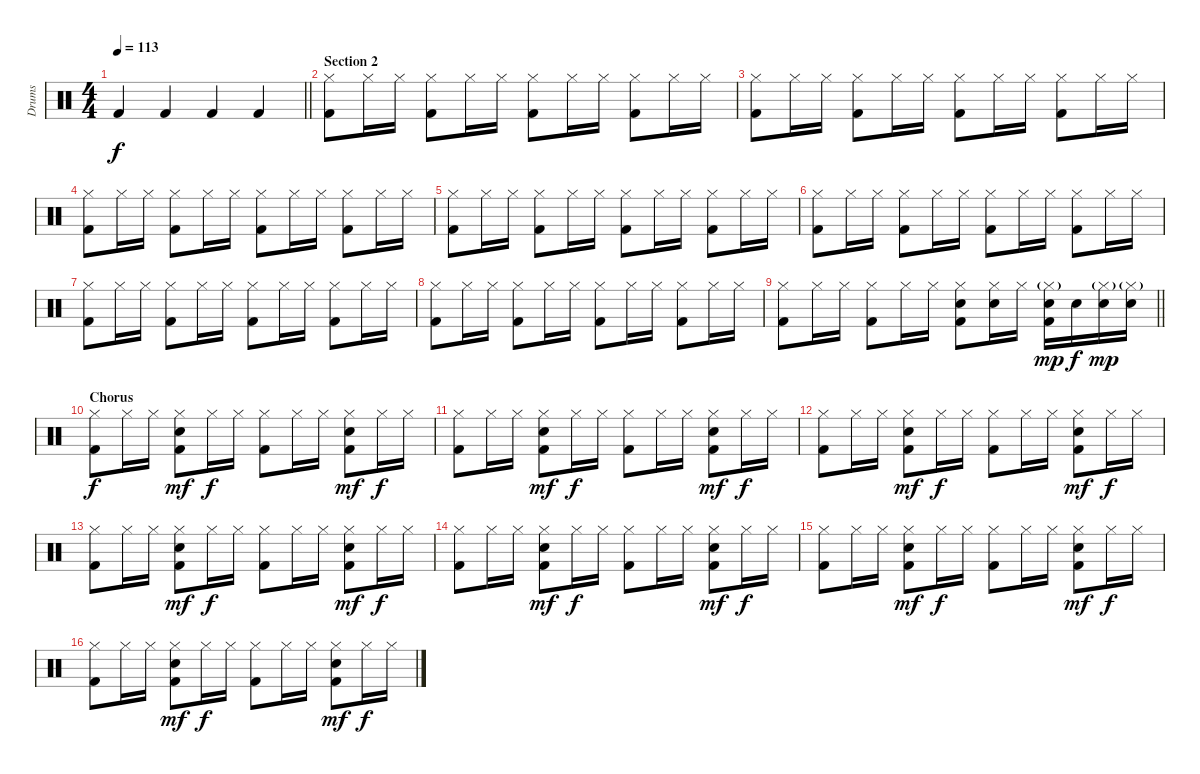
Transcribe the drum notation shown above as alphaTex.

\track ("Drums" "Drums") {instrument percussion}
\staff {score}
\articulation defaults
\ts (4 4)
\tempo 113
\clef neutral
\barLineRight lightlight
\ks c "Kick (hit) 2".4{dy f} "Kick (hit) 2".4 "Kick (hit) 2".4 "Kick (hit) 2".4
|
\section ("" "Section 2")
("Hi-Hat (closed)" "Kick (hit) 2").8 "Hi-Hat (closed)".16 "Hi-Hat (closed)".16 ("Hi-Hat (closed)" "Kick (hit) 2").8 "Hi-Hat (closed)".16 "Hi-Hat (closed)".16 ("Hi-Hat (closed)" "Kick (hit) 2").8 "Hi-Hat (closed)".16 "Hi-Hat (closed)".16 ("Hi-Hat (closed)" "Kick (hit) 2").8 "Hi-Hat (closed)".16 "Hi-Hat (closed)".16 |
("Hi-Hat (closed)" "Kick (hit) 2").8 "Hi-Hat (closed)".16 "Hi-Hat (closed)".16 ("Hi-Hat (closed)" "Kick (hit) 2").8 "Hi-Hat (closed)".16 "Hi-Hat (closed)".16 ("Hi-Hat (closed)" "Kick (hit) 2").8 "Hi-Hat (closed)".16 "Hi-Hat (closed)".16 ("Hi-Hat (closed)" "Kick (hit) 2").8 "Hi-Hat (closed)".16 "Hi-Hat (closed)".16 |
("Hi-Hat (closed)" "Kick (hit) 2").8 "Hi-Hat (closed)".16 "Hi-Hat (closed)".16 ("Hi-Hat (closed)" "Kick (hit) 2").8 "Hi-Hat (closed)".16 "Hi-Hat (closed)".16 ("Hi-Hat (closed)" "Kick (hit) 2").8 "Hi-Hat (closed)".16 "Hi-Hat (closed)".16 ("Hi-Hat (closed)" "Kick (hit) 2").8 "Hi-Hat (closed)".16 "Hi-Hat (closed)".16 |
("Hi-Hat (closed)" "Kick (hit) 2").8 "Hi-Hat (closed)".16 "Hi-Hat (closed)".16 ("Hi-Hat (closed)" "Kick (hit) 2").8 "Hi-Hat (closed)".16 "Hi-Hat (closed)".16 ("Hi-Hat (closed)" "Kick (hit) 2").8 "Hi-Hat (closed)".16 "Hi-Hat (closed)".16 ("Hi-Hat (closed)" "Kick (hit) 2").8 "Hi-Hat (closed)".16 "Hi-Hat (closed)".16 |
("Hi-Hat (closed)" "Kick (hit) 2").8 "Hi-Hat (closed)".16 "Hi-Hat (closed)".16 ("Hi-Hat (closed)" "Kick (hit) 2").8 "Hi-Hat (closed)".16 "Hi-Hat (closed)".16 ("Hi-Hat (closed)" "Kick (hit) 2").8 "Hi-Hat (closed)".16 "Hi-Hat (closed)".16 ("Hi-Hat (closed)" "Kick (hit) 2").8 "Hi-Hat (closed)".16 "Hi-Hat (closed)".16 |
("Hi-Hat (closed)" "Kick (hit) 2").8 "Hi-Hat (closed)".16 "Hi-Hat (closed)".16 ("Hi-Hat (closed)" "Kick (hit) 2").8 "Hi-Hat (closed)".16 "Hi-Hat (closed)".16 ("Hi-Hat (closed)" "Kick (hit) 2").8 "Hi-Hat (closed)".16 "Hi-Hat (closed)".16 ("Hi-Hat (closed)" "Kick (hit) 2").8 "Hi-Hat (closed)".16 "Hi-Hat (closed)".16 |
("Hi-Hat (closed)" "Kick (hit) 2").8 "Hi-Hat (closed)".16 "Hi-Hat (closed)".16 ("Hi-Hat (closed)" "Kick (hit) 2").8 "Hi-Hat (closed)".16 "Hi-Hat (closed)".16 ("Hi-Hat (closed)" "Kick (hit) 2").8 "Hi-Hat (closed)".16 "Hi-Hat (closed)".16 ("Hi-Hat (closed)" "Kick (hit) 2").8 "Hi-Hat (closed)".16 "Hi-Hat (closed)".16 |
\barLineRight lightlight
("Hi-Hat (closed)" "Kick (hit) 2").8 "Hi-Hat (closed)".16 "Hi-Hat (closed)".16 ("Hi-Hat (closed)" "Kick (hit) 2").8 "Hi-Hat (closed)".16 "Hi-Hat (closed)".16 ("Hi-Hat (closed)" "Snare (hit) 2" "Kick (hit) 2").8 ("Hi-Hat (closed)" "Snare (hit) 2").16 "Hi-Hat (closed)".16 ("Hi-Hat (closed)"{g} "Snare (hit) 2" "Kick (hit) 2").16{dy mp} "Snare (hit) 2".16{dy f} ("Hi-Hat (closed)"{g} "Snare (hit) 2").16{dy mp} ("Hi-Hat (closed)"{g} "Snare (hit) 2").16 |
\section ("" "Chorus")
("Hi-Hat (closed)" "Kick (hit) 2").8{dy f} "Hi-Hat (closed)".16 "Hi-Hat (closed)".16 ("Hi-Hat (closed)" "Snare (hit) 2" "Kick (hit) 2").8{dy mf} "Hi-Hat (closed)".16{dy f} "Hi-Hat (closed)".16 ("Hi-Hat (closed)" "Kick (hit) 2").8 "Hi-Hat (closed)".16 "Hi-Hat (closed)".16 ("Hi-Hat (closed)" "Snare (hit) 2" "Kick (hit) 2").8{dy mf} "Hi-Hat (closed)".16{dy f} "Hi-Hat (closed)".16 |
("Hi-Hat (closed)" "Kick (hit) 2").8 "Hi-Hat (closed)".16 "Hi-Hat (closed)".16 ("Hi-Hat (closed)" "Snare (hit) 2" "Kick (hit) 2").8{dy mf} "Hi-Hat (closed)".16{dy f} "Hi-Hat (closed)".16 ("Hi-Hat (closed)" "Kick (hit) 2").8 "Hi-Hat (closed)".16 "Hi-Hat (closed)".16 ("Hi-Hat (closed)" "Snare (hit) 2" "Kick (hit) 2").8{dy mf} "Hi-Hat (closed)".16{dy f} "Hi-Hat (closed)".16 |
("Hi-Hat (closed)" "Kick (hit) 2").8 "Hi-Hat (closed)".16 "Hi-Hat (closed)".16 ("Hi-Hat (closed)" "Snare (hit) 2" "Kick (hit) 2").8{dy mf} "Hi-Hat (closed)".16{dy f} "Hi-Hat (closed)".16 ("Hi-Hat (closed)" "Kick (hit) 2").8 "Hi-Hat (closed)".16 "Hi-Hat (closed)".16 ("Hi-Hat (closed)" "Snare (hit) 2" "Kick (hit) 2").8{dy mf} "Hi-Hat (closed)".16{dy f} "Hi-Hat (closed)".16 |
("Hi-Hat (closed)" "Kick (hit) 2").8 "Hi-Hat (closed)".16 "Hi-Hat (closed)".16 ("Hi-Hat (closed)" "Snare (hit) 2" "Kick (hit) 2").8{dy mf} "Hi-Hat (closed)".16{dy f} "Hi-Hat (closed)".16 ("Hi-Hat (closed)" "Kick (hit) 2").8 "Hi-Hat (closed)".16 "Hi-Hat (closed)".16 ("Hi-Hat (closed)" "Snare (hit) 2" "Kick (hit) 2").8{dy mf} "Hi-Hat (closed)".16{dy f} "Hi-Hat (closed)".16 |
("Hi-Hat (closed)" "Kick (hit) 2").8 "Hi-Hat (closed)".16 "Hi-Hat (closed)".16 ("Hi-Hat (closed)" "Snare (hit) 2" "Kick (hit) 2").8{dy mf} "Hi-Hat (closed)".16{dy f} "Hi-Hat (closed)".16 ("Hi-Hat (closed)" "Kick (hit) 2").8 "Hi-Hat (closed)".16 "Hi-Hat (closed)".16 ("Hi-Hat (closed)" "Snare (hit) 2" "Kick (hit) 2").8{dy mf} "Hi-Hat (closed)".16{dy f} "Hi-Hat (closed)".16 |
("Hi-Hat (closed)" "Kick (hit) 2").8 "Hi-Hat (closed)".16 "Hi-Hat (closed)".16 ("Hi-Hat (closed)" "Snare (hit) 2" "Kick (hit) 2").8{dy mf} "Hi-Hat (closed)".16{dy f} "Hi-Hat (closed)".16 ("Hi-Hat (closed)" "Kick (hit) 2").8 "Hi-Hat (closed)".16 "Hi-Hat (closed)".16 ("Hi-Hat (closed)" "Snare (hit) 2" "Kick (hit) 2").8{dy mf} "Hi-Hat (closed)".16{dy f} "Hi-Hat (closed)".16 |
("Hi-Hat (closed)" "Kick (hit) 2").8 "Hi-Hat (closed)".16 "Hi-Hat (closed)".16 ("Hi-Hat (closed)" "Snare (hit) 2" "Kick (hit) 2").8{dy mf} "Hi-Hat (closed)".16{dy f} "Hi-Hat (closed)".16 ("Hi-Hat (closed)" "Kick (hit) 2").8 "Hi-Hat (closed)".16 "Hi-Hat (closed)".16 ("Hi-Hat (closed)" "Snare (hit) 2" "Kick (hit) 2").8{dy mf} "Hi-Hat (closed)".16{dy f} "Hi-Hat (closed)".16
